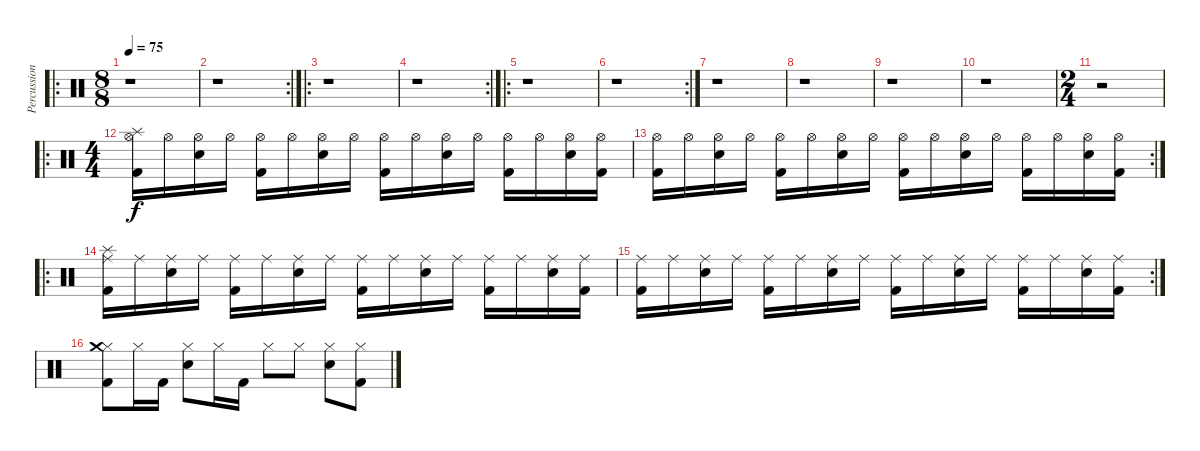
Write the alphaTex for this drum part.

\track ("Percussion" "Percussion") {instrument percussion}
\staff {score}
\articulation defaults
\ro
\ts (8 8)
\tempo 75
\clef neutral
\ks c
r.1{dy f} |
\rc 2
r.1 |
\ro
r.1 |
\rc 2
r.1 |
\ro
r.1 |
\rc 2
r.1 |
r.1 |
r.1 |
r.1 |
r.1 |
\ts (2 4)
r.2 |
\ro
\ts (4 4)
("Kick (hit) 2" "Hi-Hat (open)" "Splash (hit)").16{volume 15} "Hi-Hat (open)".16 ("Snare (hit) 2" "Hi-Hat (open)").16 "Hi-Hat (open)".16 ("Kick (hit) 2" "Hi-Hat (open)").16 "Hi-Hat (open)".16 ("Snare (hit) 2" "Hi-Hat (open)").16 "Hi-Hat (open)".16 ("Kick (hit) 2" "Hi-Hat (open)").16 "Hi-Hat (open)".16 ("Snare (hit) 2" "Hi-Hat (open)").16 "Hi-Hat (open)".16 ("Kick (hit) 2" "Hi-Hat (open)").16 "Hi-Hat (open)".16 ("Snare (hit) 2" "Hi-Hat (open)").16 ("Kick (hit) 2" "Hi-Hat (open)").16 |
\rc 2
("Kick (hit) 2" "Hi-Hat (open)").16 "Hi-Hat (open)".16 ("Snare (hit) 2" "Hi-Hat (open)").16 "Hi-Hat (open)".16 ("Kick (hit) 2" "Hi-Hat (open)").16 "Hi-Hat (open)".16 ("Snare (hit) 2" "Hi-Hat (open)").16 "Hi-Hat (open)".16 ("Kick (hit) 2" "Hi-Hat (open)").16 "Hi-Hat (open)".16 ("Snare (hit) 2" "Hi-Hat (open)").16 "Hi-Hat (open)".16 ("Kick (hit) 2" "Hi-Hat (open)").16 "Hi-Hat (open)".16 ("Snare (hit) 2" "Hi-Hat (open)").16 ("Kick (hit) 2" "Hi-Hat (open)").16 |
\ro
("Kick (hit) 2" "Ride (middle)" "Splash (hit)").16 "Ride (middle)".16 ("Snare (hit) 2" "Ride (middle)").16 "Ride (middle)".16 ("Kick (hit) 2" "Ride (middle)").16 "Ride (middle)".16 ("Snare (hit) 2" "Ride (middle)").16 "Ride (middle)".16 ("Kick (hit) 2" "Ride (middle)").16 "Ride (middle)".16 ("Snare (hit) 2" "Ride (middle)").16 "Ride (middle)".16 ("Kick (hit) 2" "Ride (middle)").16 "Ride (middle)".16 ("Snare (hit) 2" "Ride (middle)").16 ("Kick (hit) 2" "Ride (middle)").16 |
\rc 2
("Kick (hit) 2" "Ride (middle)").16 "Ride (middle)".16 ("Snare (hit) 2" "Ride (middle)").16 "Ride (middle)".16 ("Kick (hit) 2" "Ride (middle)").16 "Ride (middle)".16 ("Snare (hit) 2" "Ride (middle)").16 "Ride (middle)".16 ("Kick (hit) 2" "Ride (middle)").16 "Ride (middle)".16 ("Snare (hit) 2" "Ride (middle)").16 "Ride (middle)".16 ("Kick (hit) 2" "Ride (middle)").16 "Ride (middle)".16 ("Snare (hit) 2" "Ride (middle)").16 ("Kick (hit) 2" "Ride (middle)").16 |
("Kick (hit) 2" "Hi-Hat (closed)" "Crash medium (hit)").8 "Hi-Hat (closed)".16 "Kick (hit) 2".16 ("Snare (hit) 2" "Hi-Hat (closed)").8 "Hi-Hat (closed)".16 "Kick (hit) 2".16 "Hi-Hat (closed)".8 "Hi-Hat (closed)".8 ("Snare (hit) 2" "Hi-Hat (closed)").8 ("Kick (hit) 2" "Hi-Hat (closed)").8
